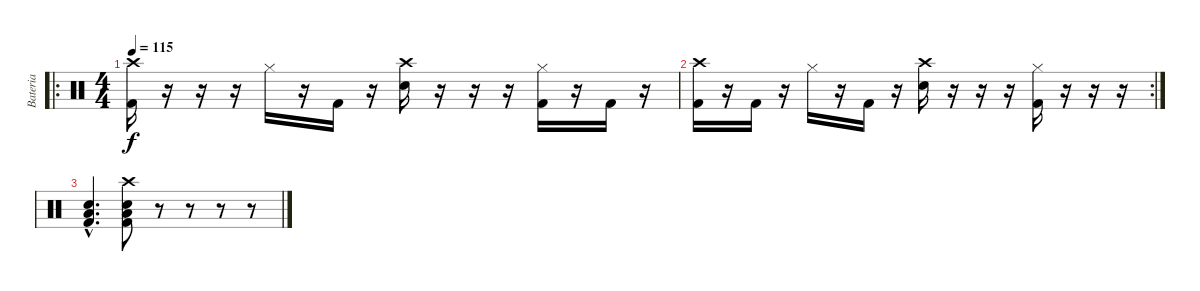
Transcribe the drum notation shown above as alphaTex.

\track ("Bateria" "Bateria") {instrument percussion}
\staff {score}
\articulation defaults
\ro
\ts (4 4)
\tempo 115
\clef neutral
\ks c
("Crash high (hit)" "Kick (hit) 2").16{dy f} r.16 r.16 r.16 "Hi-Hat (closed)".16 r.16 "Kick (hit) 2".16 r.16 ("Crash high (hit)" "Electric Snare (hit)").16 r.16 r.16 r.16 ("Hi-Hat (closed)" "Kick (hit) 2").16 r.16 "Kick (hit) 2".16 r.16 |
\rc 2
("Crash high (hit)" "Kick (hit) 2").16 r.16 "Kick (hit) 2".16 r.16 "Hi-Hat (closed)".16 r.16 "Kick (hit) 2".16 r.16 ("Crash high (hit)" "Electric Snare (hit)").16 r.16 r.16 r.16 ("Hi-Hat (closed)" "Kick (hit) 2").16 r.16 r.16 r.16 |
("Electric Snare (hit)"{hac} "Low Floor Tom (hit)"{hac} "Kick (hit) 2"{hac}).4{d} ("Crash high (hit)" "Electric Snare (hit)" "Low Floor Tom (hit)" "Kick (hit) 2").8 r.8 r.8 r.8 r.8
